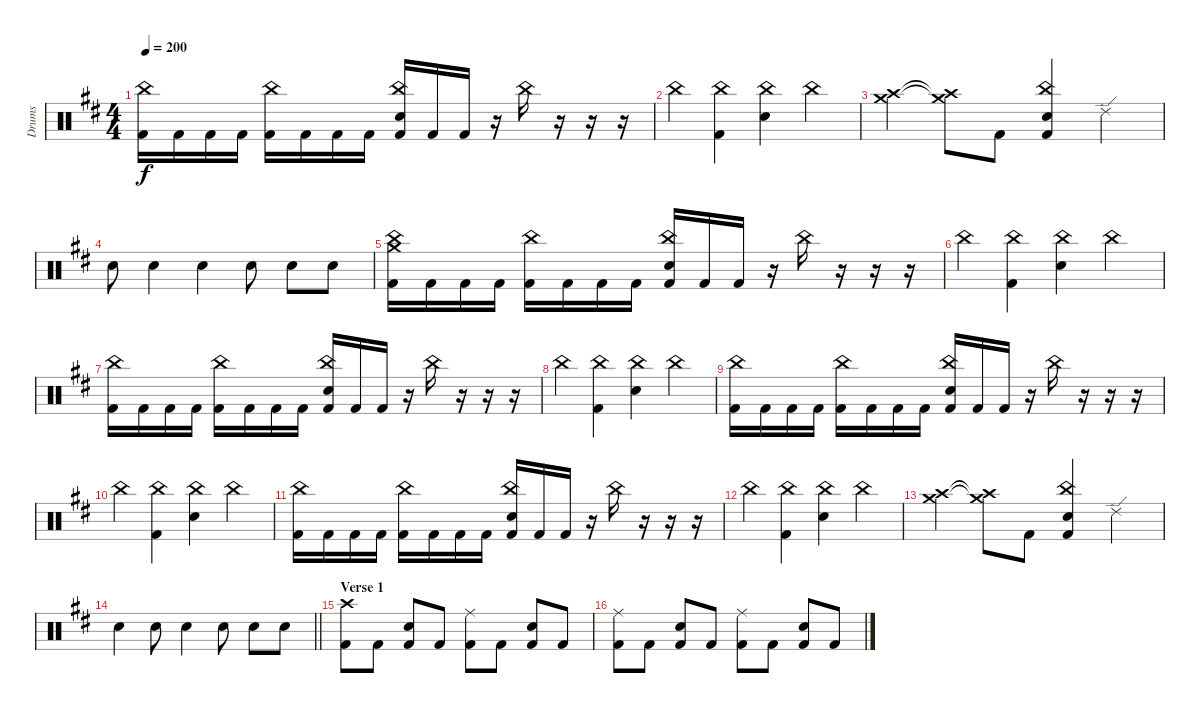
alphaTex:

\track ("Drums" "Drums") {instrument percussion}
\staff {score}
\articulation defaults
\ts (4 4)
\tempo 200
\clef neutral
\ks bminor
("Kick (hit) 2" "China (hit)").16{dy f} "Kick (hit) 2".16 "Kick (hit) 2".16 "Kick (hit) 2".16 ("Kick (hit) 2" "China (hit)").16 "Kick (hit) 2".16 "Kick (hit) 2".16 "Kick (hit) 2".16 ("Kick (hit) 2" "Electric Snare (hit)" "China (hit)").16 "Kick (hit) 2".16 "Kick (hit) 2".16 r.16 "China (hit)".16 r.16 r.16 r.16 |
"China (hit)".4 ("Kick (hit) 2" "China (hit)").4 ("Electric Snare (hit)" "China (hit)").4 "China (hit)".4 |
("Crash high (hit)" "Crash medium (hit)").4 ("Crash high (hit)"{t} "Crash medium (hit)"{t}).8 "Kick (hit) 2".8 ("Electric Snare (hit)" "Kick (hit) 2" "China (hit)").4 "Ride (edge) 2".4 |
"Electric Snare (hit)".8 "Electric Snare (hit)".4 "Electric Snare (hit)".4 "Electric Snare (hit)".8 "Electric Snare (hit)".8 "Electric Snare (hit)".8 |
("Kick (hit) 2" "Crash medium (hit)" "China (hit)").16 "Kick (hit) 2".16 "Kick (hit) 2".16 "Kick (hit) 2".16 ("Kick (hit) 2" "China (hit)").16 "Kick (hit) 2".16 "Kick (hit) 2".16 "Kick (hit) 2".16 ("Kick (hit) 2" "Electric Snare (hit)" "China (hit)").16 "Kick (hit) 2".16 "Kick (hit) 2".16 r.16 "China (hit)".16 r.16 r.16 r.16 |
"China (hit)".4 ("Kick (hit) 2" "China (hit)").4 ("Electric Snare (hit)" "China (hit)").4 "China (hit)".4 |
("Kick (hit) 2" "China (hit)").16 "Kick (hit) 2".16 "Kick (hit) 2".16 "Kick (hit) 2".16 ("Kick (hit) 2" "China (hit)").16 "Kick (hit) 2".16 "Kick (hit) 2".16 "Kick (hit) 2".16 ("Kick (hit) 2" "Electric Snare (hit)" "China (hit)").16 "Kick (hit) 2".16 "Kick (hit) 2".16 r.16 "China (hit)".16 r.16 r.16 r.16 |
"China (hit)".4 ("Kick (hit) 2" "China (hit)").4 ("Electric Snare (hit)" "China (hit)").4 "China (hit)".4 |
("Kick (hit) 2" "China (hit)").16 "Kick (hit) 2".16 "Kick (hit) 2".16 "Kick (hit) 2".16 ("Kick (hit) 2" "China (hit)").16 "Kick (hit) 2".16 "Kick (hit) 2".16 "Kick (hit) 2".16 ("Kick (hit) 2" "Electric Snare (hit)" "China (hit)").16 "Kick (hit) 2".16 "Kick (hit) 2".16 r.16 "China (hit)".16 r.16 r.16 r.16 |
"China (hit)".4 ("Kick (hit) 2" "China (hit)").4 ("Electric Snare (hit)" "China (hit)").4 "China (hit)".4 |
("Kick (hit) 2" "China (hit)").16 "Kick (hit) 2".16 "Kick (hit) 2".16 "Kick (hit) 2".16 ("Kick (hit) 2" "China (hit)").16 "Kick (hit) 2".16 "Kick (hit) 2".16 "Kick (hit) 2".16 ("Kick (hit) 2" "Electric Snare (hit)" "China (hit)").16 "Kick (hit) 2".16 "Kick (hit) 2".16 r.16 "China (hit)".16 r.16 r.16 r.16 |
"China (hit)".4 ("Kick (hit) 2" "China (hit)").4 ("Electric Snare (hit)" "China (hit)").4 "China (hit)".4 |
("Crash high (hit)" "Crash medium (hit)").4 ("Crash high (hit)"{t} "Crash medium (hit)"{t}).8 "Kick (hit) 2".8 ("Electric Snare (hit)" "Kick (hit) 2" "China (hit)").4 "Ride (edge) 2".4 |
\barLineRight lightlight "Electric Snare (hit)".4 "Electric Snare (hit)".8 "Electric Snare (hit)".4 "Electric Snare (hit)".8 "Electric Snare (hit)".8 "Electric Snare (hit)".8
|
\section ("" "Verse 1")
("Kick (hit) 2" "Crash high (hit)").8 "Kick (hit) 2".8 ("Kick (hit) 2" "Electric Snare (hit)").8 "Kick (hit) 2".8 ("Kick (hit) 2" "Ride (middle)").8 "Kick (hit) 2".8 ("Kick (hit) 2" "Electric Snare (hit)").8 "Kick (hit) 2".8 |
("Kick (hit) 2" "Ride (middle)").8 "Kick (hit) 2".8 ("Kick (hit) 2" "Electric Snare (hit)").8 "Kick (hit) 2".8 ("Kick (hit) 2" "Ride (middle)").8 "Kick (hit) 2".8 ("Kick (hit) 2" "Electric Snare (hit)").8 "Kick (hit) 2".8
